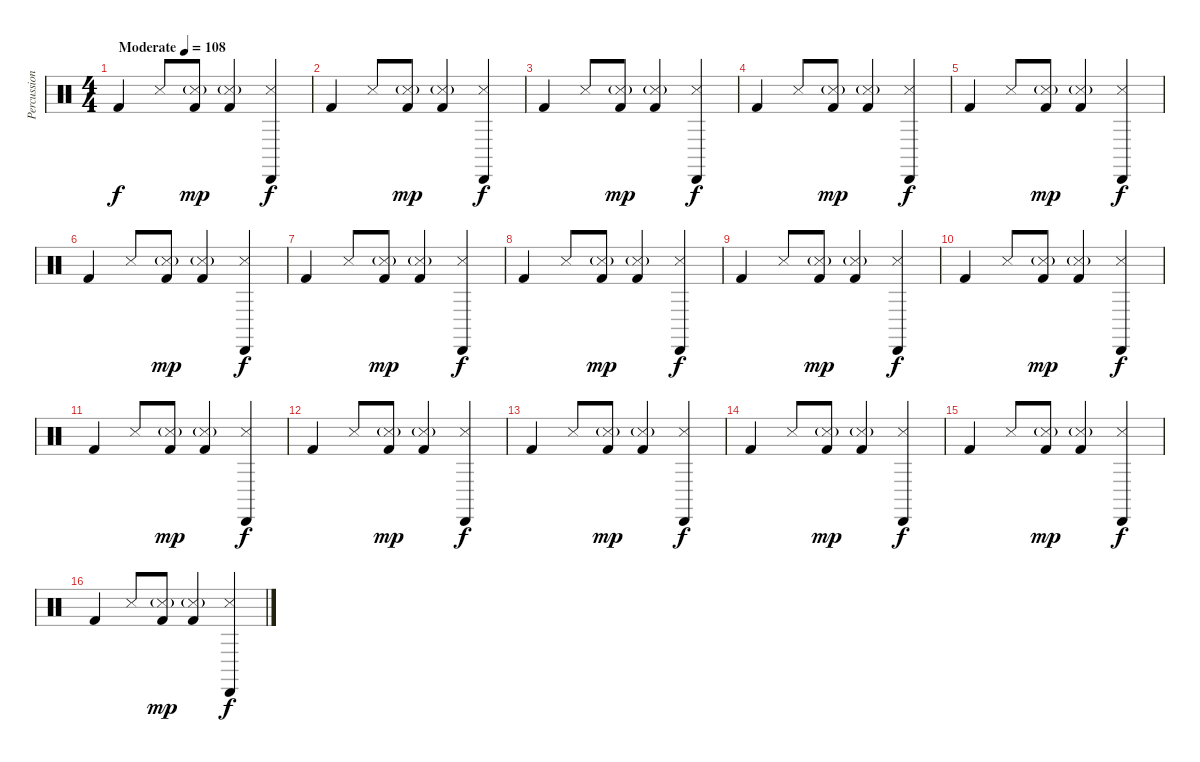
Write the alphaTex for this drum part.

\track ("Percussions" "Percussion") {instrument percussion}
\staff {score}
\articulation defaults
\ts (4 4)
\tempo (108 "Moderate")
\clef neutral
\ks c "Kick (hit) 2".4{dy f} "Metronome (hit)".8
("Metronome (hit)"{g} "Kick (hit) 2").8{dy mp} ("Snare (side stick) 3"{g} "Kick (hit) 2").4 ("Cabasa (hit)" "Metronome (hit)").4{dy f} |
"Kick (hit) 2".4 "Metronome (hit)".8 ("Metronome (hit)"{g} "Kick (hit) 2").8{dy mp} ("Snare (side stick) 3"{g} "Kick (hit) 2").4 ("Cabasa (hit)" "Metronome (hit)").4{dy f} |
"Kick (hit) 2".4 "Metronome (hit)".8 ("Metronome (hit)"{g} "Kick (hit) 2").8{dy mp} ("Snare (side stick) 3"{g} "Kick (hit) 2").4 ("Cabasa (hit)" "Metronome (hit)").4{dy f} |
"Kick (hit) 2".4 "Metronome (hit)".8 ("Metronome (hit)"{g} "Kick (hit) 2").8{dy mp} ("Snare (side stick) 3"{g} "Kick (hit) 2").4 ("Cabasa (hit)" "Metronome (hit)").4{dy f} |
"Kick (hit) 2".4 "Metronome (hit)".8 ("Metronome (hit)"{g} "Kick (hit) 2").8{dy mp} ("Snare (side stick) 3"{g} "Kick (hit) 2").4 ("Cabasa (hit)" "Metronome (hit)").4{dy f} |
"Kick (hit) 2".4 "Metronome (hit)".8 ("Metronome (hit)"{g} "Kick (hit) 2").8{dy mp} ("Snare (side stick) 3"{g} "Kick (hit) 2").4 ("Cabasa (hit)" "Metronome (hit)").4{dy f} |
"Kick (hit) 2".4 "Metronome (hit)".8 ("Metronome (hit)"{g} "Kick (hit) 2").8{dy mp} ("Snare (side stick) 3"{g} "Kick (hit) 2").4 ("Cabasa (hit)" "Metronome (hit)").4{dy f} |
"Kick (hit) 2".4 "Metronome (hit)".8 ("Metronome (hit)"{g} "Kick (hit) 2").8{dy mp} ("Snare (side stick) 3"{g} "Kick (hit) 2").4 ("Cabasa (hit)" "Metronome (hit)").4{dy f} |
"Kick (hit) 2".4 "Metronome (hit)".8 ("Metronome (hit)"{g} "Kick (hit) 2").8{dy mp} ("Snare (side stick) 3"{g} "Kick (hit) 2").4 ("Cabasa (hit)" "Metronome (hit)").4{dy f} |
"Kick (hit) 2".4 "Metronome (hit)".8 ("Metronome (hit)"{g} "Kick (hit) 2").8{dy mp} ("Snare (side stick) 3"{g} "Kick (hit) 2").4 ("Cabasa (hit)" "Metronome (hit)").4{dy f} |
"Kick (hit) 2".4 "Metronome (hit)".8 ("Metronome (hit)"{g} "Kick (hit) 2").8{dy mp} ("Snare (side stick) 3"{g} "Kick (hit) 2").4 ("Cabasa (hit)" "Metronome (hit)").4{dy f} |
"Kick (hit) 2".4 "Metronome (hit)".8 ("Metronome (hit)"{g} "Kick (hit) 2").8{dy mp} ("Snare (side stick) 3"{g} "Kick (hit) 2").4 ("Cabasa (hit)" "Metronome (hit)").4{dy f} |
"Kick (hit) 2".4 "Metronome (hit)".8 ("Metronome (hit)"{g} "Kick (hit) 2").8{dy mp} ("Snare (side stick) 3"{g} "Kick (hit) 2").4 ("Cabasa (hit)" "Metronome (hit)").4{dy f} |
"Kick (hit) 2".4 "Metronome (hit)".8 ("Metronome (hit)"{g} "Kick (hit) 2").8{dy mp} ("Snare (side stick) 3"{g} "Kick (hit) 2").4 ("Cabasa (hit)" "Metronome (hit)").4{dy f} |
"Kick (hit) 2".4 "Metronome (hit)".8 ("Metronome (hit)"{g} "Kick (hit) 2").8{dy mp} ("Snare (side stick) 3"{g} "Kick (hit) 2").4 ("Cabasa (hit)" "Metronome (hit)").4{dy f} |
"Kick (hit) 2".4 "Metronome (hit)".8 ("Metronome (hit)"{g} "Kick (hit) 2").8{dy mp} ("Snare (side stick) 3"{g} "Kick (hit) 2").4 ("Cabasa (hit)" "Metronome (hit)").4{dy f}
